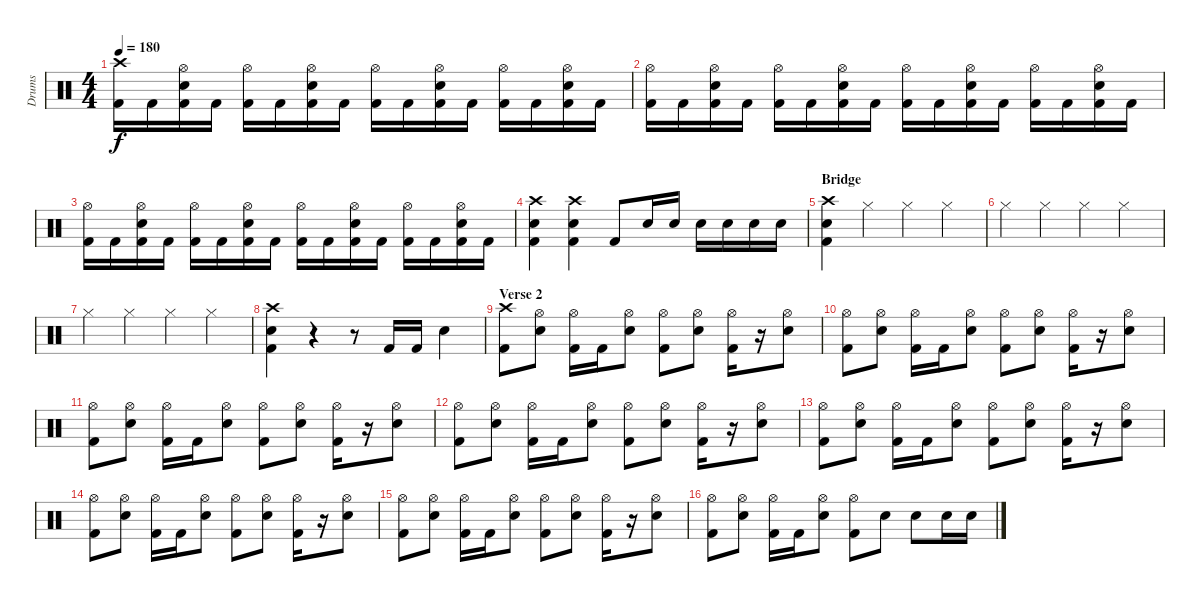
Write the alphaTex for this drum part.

\track ("Drums" "Drums") {instrument percussion}
\staff {score}
\articulation defaults
\ts (4 4)
\tempo 180
\clef neutral
\ks c
("Crash high (hit)" "Kick (hit) 2").16{dy f} "Kick (hit) 2".16 ("Hi-Hat (open)" "Snare (hit) 2" "Kick (hit) 2").16 "Kick (hit) 2".16 ("Hi-Hat (open)" "Kick (hit) 2").16 "Kick (hit) 2".16 ("Hi-Hat (open)" "Snare (hit) 2" "Kick (hit) 2").16 "Kick (hit) 2".16 ("Hi-Hat (open)" "Kick (hit) 2").16 "Kick (hit) 2".16 ("Hi-Hat (open)" "Snare (hit) 2" "Kick (hit) 2").16 "Kick (hit) 2".16 ("Hi-Hat (open)" "Kick (hit) 2").16 "Kick (hit) 2".16 ("Hi-Hat (open)" "Snare (hit) 2" "Kick (hit) 2").16 "Kick (hit) 2".16 |
("Hi-Hat (open)" "Kick (hit) 2").16 "Kick (hit) 2".16 ("Hi-Hat (open)" "Snare (hit) 2" "Kick (hit) 2").16 "Kick (hit) 2".16 ("Hi-Hat (open)" "Kick (hit) 2").16 "Kick (hit) 2".16 ("Hi-Hat (open)" "Snare (hit) 2" "Kick (hit) 2").16 "Kick (hit) 2".16 ("Hi-Hat (open)" "Kick (hit) 2").16 "Kick (hit) 2".16 ("Hi-Hat (open)" "Snare (hit) 2" "Kick (hit) 2").16 "Kick (hit) 2".16 ("Hi-Hat (open)" "Kick (hit) 2").16 "Kick (hit) 2".16 ("Hi-Hat (open)" "Snare (hit) 2" "Kick (hit) 2").16 "Kick (hit) 2".16 |
("Hi-Hat (open)" "Kick (hit) 2").16 "Kick (hit) 2".16 ("Hi-Hat (open)" "Snare (hit) 2" "Kick (hit) 2").16 "Kick (hit) 2".16 ("Hi-Hat (open)" "Kick (hit) 2").16 "Kick (hit) 2".16 ("Hi-Hat (open)" "Snare (hit) 2" "Kick (hit) 2").16 "Kick (hit) 2".16 ("Hi-Hat (open)" "Kick (hit) 2").16 "Kick (hit) 2".16 ("Hi-Hat (open)" "Snare (hit) 2" "Kick (hit) 2").16 "Kick (hit) 2".16 ("Hi-Hat (open)" "Kick (hit) 2").16 "Kick (hit) 2".16 ("Hi-Hat (open)" "Snare (hit) 2" "Kick (hit) 2").16 "Kick (hit) 2".16 |
("Crash high (hit)" "Snare (hit) 2" "Kick (hit) 2").4 ("Crash high (hit)" "Snare (hit) 2" "Kick (hit) 2").4 "Kick (hit) 2".8 "Snare (hit) 2".16 "Snare (hit) 2".16 "Snare (hit) 2".16 "Snare (hit) 2".16 "Snare (hit) 2".16 "Snare (hit) 2".16 |
\section ("" "Bridge")
("Crash high (hit)" "Snare (hit) 2" "Kick (hit) 2").4 "Hi-Hat (closed)".4 "Hi-Hat (closed)".4 "Hi-Hat (closed)".4 |
"Hi-Hat (closed)".4 "Hi-Hat (closed)".4 "Hi-Hat (closed)".4 "Hi-Hat (closed)".4 |
"Hi-Hat (closed)".4 "Hi-Hat (closed)".4 "Hi-Hat (closed)".4 "Hi-Hat (closed)".4 |
("Crash high (hit)" "Snare (hit) 2" "Kick (hit) 2").4 r.4 r.8 "Kick (hit) 2".16 "Kick (hit) 2".16 "Snare (hit) 2".4 |
\section ("" "Verse 2")
("Crash high (hit)" "Kick (hit) 2").8 ("Hi-Hat (open)" "Snare (hit) 2").8 ("Hi-Hat (open)" "Kick (hit) 2").16 "Kick (hit) 2".16 ("Hi-Hat (open)" "Snare (hit) 2").8 ("Hi-Hat (open)" "Kick (hit) 2").8 ("Hi-Hat (open)" "Snare (hit) 2").8 ("Hi-Hat (open)" "Kick (hit) 2").16 r.16 ("Hi-Hat (open)" "Snare (hit) 2").8 |
("Hi-Hat (open)" "Kick (hit) 2").8 ("Hi-Hat (open)" "Snare (hit) 2").8 ("Hi-Hat (open)" "Kick (hit) 2").16 "Kick (hit) 2".16 ("Hi-Hat (open)" "Snare (hit) 2").8 ("Hi-Hat (open)" "Kick (hit) 2").8 ("Hi-Hat (open)" "Snare (hit) 2").8 ("Hi-Hat (open)" "Kick (hit) 2").16 r.16 ("Hi-Hat (open)" "Snare (hit) 2").8 |
("Hi-Hat (open)" "Kick (hit) 2").8 ("Hi-Hat (open)" "Snare (hit) 2").8 ("Hi-Hat (open)" "Kick (hit) 2").16 "Kick (hit) 2".16 ("Hi-Hat (open)" "Snare (hit) 2").8 ("Hi-Hat (open)" "Kick (hit) 2").8 ("Hi-Hat (open)" "Snare (hit) 2").8 ("Hi-Hat (open)" "Kick (hit) 2").16 r.16 ("Hi-Hat (open)" "Snare (hit) 2").8 |
("Hi-Hat (open)" "Kick (hit) 2").8 ("Hi-Hat (open)" "Snare (hit) 2").8 ("Hi-Hat (open)" "Kick (hit) 2").16 "Kick (hit) 2".16 ("Hi-Hat (open)" "Snare (hit) 2").8 ("Hi-Hat (open)" "Kick (hit) 2").8 ("Hi-Hat (open)" "Snare (hit) 2").8 ("Hi-Hat (open)" "Kick (hit) 2").16 r.16 ("Hi-Hat (open)" "Snare (hit) 2").8 |
("Hi-Hat (open)" "Kick (hit) 2").8 ("Hi-Hat (open)" "Snare (hit) 2").8 ("Hi-Hat (open)" "Kick (hit) 2").16 "Kick (hit) 2".16 ("Hi-Hat (open)" "Snare (hit) 2").8 ("Hi-Hat (open)" "Kick (hit) 2").8 ("Hi-Hat (open)" "Snare (hit) 2").8 ("Hi-Hat (open)" "Kick (hit) 2").16 r.16 ("Hi-Hat (open)" "Snare (hit) 2").8 |
("Hi-Hat (open)" "Kick (hit) 2").8 ("Hi-Hat (open)" "Snare (hit) 2").8 ("Hi-Hat (open)" "Kick (hit) 2").16 "Kick (hit) 2".16 ("Hi-Hat (open)" "Snare (hit) 2").8 ("Hi-Hat (open)" "Kick (hit) 2").8 ("Hi-Hat (open)" "Snare (hit) 2").8 ("Hi-Hat (open)" "Kick (hit) 2").16 r.16 ("Hi-Hat (open)" "Snare (hit) 2").8 |
("Hi-Hat (open)" "Kick (hit) 2").8 ("Hi-Hat (open)" "Snare (hit) 2").8 ("Hi-Hat (open)" "Kick (hit) 2").16 "Kick (hit) 2".16 ("Hi-Hat (open)" "Snare (hit) 2").8 ("Hi-Hat (open)" "Kick (hit) 2").8 ("Hi-Hat (open)" "Snare (hit) 2").8 ("Hi-Hat (open)" "Kick (hit) 2").16 r.16 ("Hi-Hat (open)" "Snare (hit) 2").8 |
("Hi-Hat (open)" "Kick (hit) 2").8 ("Hi-Hat (open)" "Snare (hit) 2").8 ("Hi-Hat (open)" "Kick (hit) 2").16 "Kick (hit) 2".16 ("Hi-Hat (open)" "Snare (hit) 2").8 ("Hi-Hat (open)" "Kick (hit) 2").8 "Snare (hit) 2".8 "Snare (hit) 2".8 "Snare (hit) 2".16 "Snare (hit) 2".16
